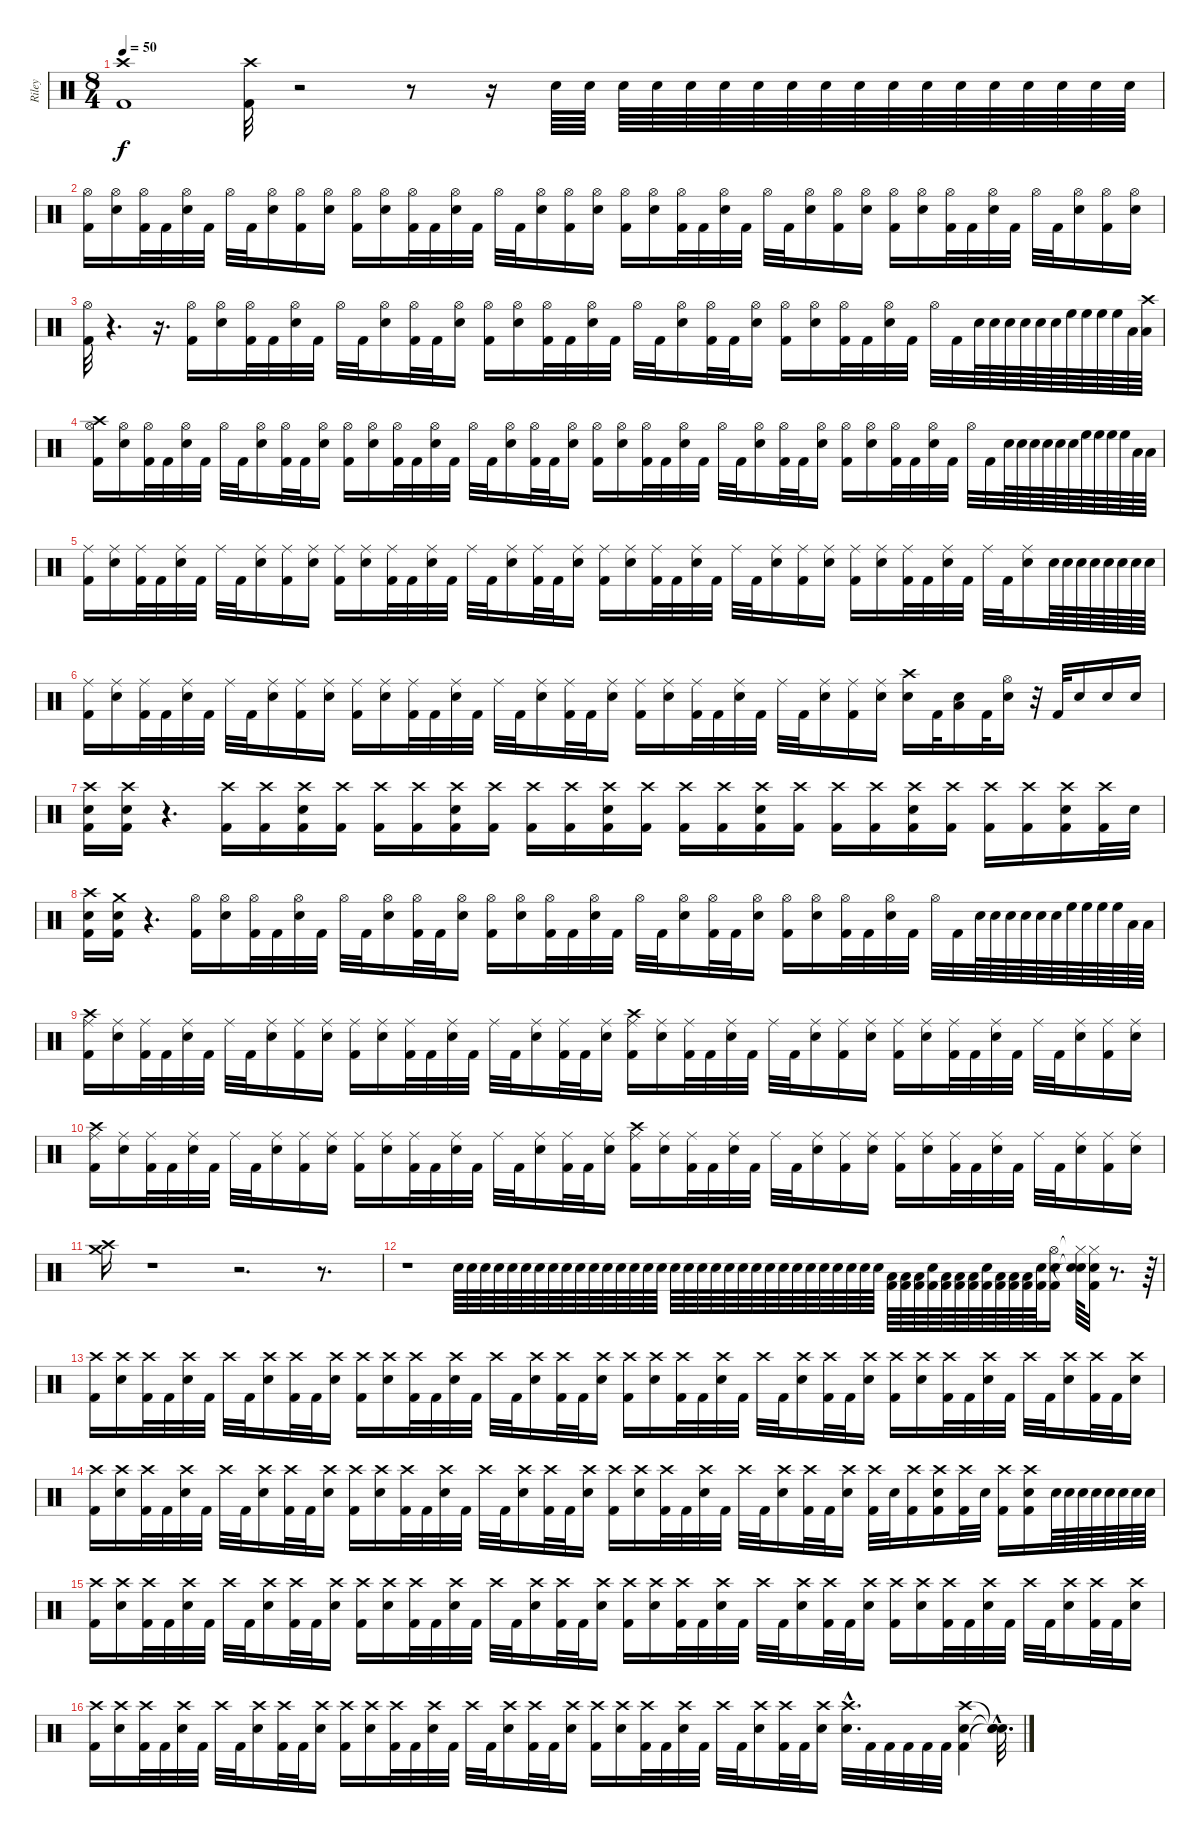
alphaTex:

\track ("Riley" "Riley") {instrument percussion}
\staff {score}
\articulation defaults
\ts (8 4)
\tempo 50
\clef neutral
\ks c
("Crash high (hit)" "Kick (hit) 2").1{dy f} ("Crash high (hit)" "Kick (hit) 2").32 r.2 r.8 r.16 "Snare (hit) 2".64 "Snare (hit) 2".64 "Snare (hit) 2".64 "Snare (hit) 2".64 "Snare (hit) 2".64 "Snare (hit) 2".64 "Snare (hit) 2".64 "Snare (hit) 2".64 "Snare (hit) 2".64 "Snare (hit) 2".64 "Snare (hit) 2".64 "Snare (hit) 2".64 "Snare (hit) 2".64 "Snare (hit) 2".64 "Snare (hit) 2".64 "Snare (hit) 2".64 "Snare (hit) 2".64 "Snare (hit) 2".64 |
("Hi-Hat (open)" "Kick (hit) 2").16 ("Hi-Hat (open)" "Snare (hit) 2").16 ("Hi-Hat (open)" "Kick (hit) 2").32 "Kick (hit) 2".32 ("Hi-Hat (open)" "Snare (hit) 2").32 "Kick (hit) 2".32 "Hi-Hat (open)".32 "Kick (hit) 2".32 ("Hi-Hat (open)" "Snare (hit) 2").16 ("Hi-Hat (open)" "Kick (hit) 2").16 ("Hi-Hat (open)" "Snare (hit) 2").16 ("Hi-Hat (open)" "Kick (hit) 2").16 ("Hi-Hat (open)" "Snare (hit) 2").16 ("Hi-Hat (open)" "Kick (hit) 2").32 "Kick (hit) 2".32 ("Hi-Hat (open)" "Snare (hit) 2").32 "Kick (hit) 2".32 "Hi-Hat (open)".32 "Kick (hit) 2".32 ("Hi-Hat (open)" "Snare (hit) 2").16 ("Hi-Hat (open)" "Kick (hit) 2").16 ("Hi-Hat (open)" "Snare (hit) 2").16 ("Hi-Hat (open)" "Kick (hit) 2").16 ("Hi-Hat (open)" "Snare (hit) 2").16 ("Hi-Hat (open)" "Kick (hit) 2").32 "Kick (hit) 2".32 ("Hi-Hat (open)" "Snare (hit) 2").32 "Kick (hit) 2".32 "Hi-Hat (open)".32 "Kick (hit) 2".32 ("Hi-Hat (open)" "Snare (hit) 2").16 ("Hi-Hat (open)" "Kick (hit) 2").16 ("Hi-Hat (open)" "Snare (hit) 2").16 ("Hi-Hat (open)" "Kick (hit) 2").16 ("Hi-Hat (open)" "Snare (hit) 2").16 ("Hi-Hat (open)" "Kick (hit) 2").32 "Kick (hit) 2".32 ("Hi-Hat (open)" "Snare (hit) 2").32 "Kick (hit) 2".32 "Hi-Hat (open)".32 "Kick (hit) 2".32 ("Hi-Hat (open)" "Snare (hit) 2").16 ("Hi-Hat (open)" "Kick (hit) 2").16 ("Hi-Hat (open)" "Snare (hit) 2").16 |
("Hi-Hat (open)" "Kick (hit) 2").32 r.4{d} r.16{d} ("Hi-Hat (open)" "Kick (hit) 2").16 ("Hi-Hat (open)" "Snare (hit) 2").16 ("Hi-Hat (open)" "Kick (hit) 2").32 "Kick (hit) 2".32 ("Hi-Hat (open)" "Snare (hit) 2").32 "Kick (hit) 2".32 "Hi-Hat (open)".32 "Kick (hit) 2".32 ("Hi-Hat (open)" "Snare (hit) 2").16 ("Hi-Hat (open)" "Kick (hit) 2").32 "Kick (hit) 2".32 ("Hi-Hat (open)" "Snare (hit) 2").16 ("Hi-Hat (open)" "Kick (hit) 2").16 ("Hi-Hat (open)" "Snare (hit) 2").16 ("Hi-Hat (open)" "Kick (hit) 2").32 "Kick (hit) 2".32 ("Hi-Hat (open)" "Snare (hit) 2").32 "Kick (hit) 2".32 "Hi-Hat (open)".32 "Kick (hit) 2".32 ("Hi-Hat (open)" "Snare (hit) 2").16 ("Hi-Hat (open)" "Kick (hit) 2").32 "Kick (hit) 2".32 ("Hi-Hat (open)" "Snare (hit) 2").16 ("Hi-Hat (open)" "Kick (hit) 2").16 ("Hi-Hat (open)" "Snare (hit) 2").16 ("Hi-Hat (open)" "Kick (hit) 2").32 "Kick (hit) 2".32 ("Hi-Hat (open)" "Snare (hit) 2").32 "Kick (hit) 2".32 "Hi-Hat (open)".32 "Kick (hit) 2".32 "Snare (hit) 2".64 "Snare (hit) 2".64 "Snare (hit) 2".64 "Snare (hit) 2".64 "Snare (hit) 2".64 "Snare (hit) 2".64 "High Floor Tom (hit)".64 "High Floor Tom (hit)".64 "High Floor Tom (hit)".64 "High Floor Tom (hit)".64 "Low Tom (hit)".64 ("Crash high (hit)" "Low Tom (hit)").64 |
("Crash high (hit)" "Hi-Hat (open)" "Kick (hit) 2").16 ("Hi-Hat (open)" "Snare (hit) 2").16 ("Hi-Hat (open)" "Kick (hit) 2").32 "Kick (hit) 2".32 ("Hi-Hat (open)" "Snare (hit) 2").32 "Kick (hit) 2".32 "Hi-Hat (open)".32 "Kick (hit) 2".32 ("Hi-Hat (open)" "Snare (hit) 2").16 ("Hi-Hat (open)" "Kick (hit) 2").32 "Kick (hit) 2".32 ("Hi-Hat (open)" "Snare (hit) 2").16 ("Hi-Hat (open)" "Kick (hit) 2").16 ("Hi-Hat (open)" "Snare (hit) 2").16 ("Hi-Hat (open)" "Kick (hit) 2").32 "Kick (hit) 2".32 ("Hi-Hat (open)" "Snare (hit) 2").32 "Kick (hit) 2".32 "Hi-Hat (open)".32 "Kick (hit) 2".32 ("Hi-Hat (open)" "Snare (hit) 2").16 ("Hi-Hat (open)" "Kick (hit) 2").32 "Kick (hit) 2".32 ("Hi-Hat (open)" "Snare (hit) 2").16 ("Hi-Hat (open)" "Kick (hit) 2").16 ("Hi-Hat (open)" "Snare (hit) 2").16 ("Hi-Hat (open)" "Kick (hit) 2").32 "Kick (hit) 2".32 ("Hi-Hat (open)" "Snare (hit) 2").32 "Kick (hit) 2".32 "Hi-Hat (open)".32 "Kick (hit) 2".32 ("Hi-Hat (open)" "Snare (hit) 2").16 ("Hi-Hat (open)" "Kick (hit) 2").32 "Kick (hit) 2".32 ("Hi-Hat (open)" "Snare (hit) 2").16 ("Hi-Hat (open)" "Kick (hit) 2").16 ("Hi-Hat (open)" "Snare (hit) 2").16 ("Hi-Hat (open)" "Kick (hit) 2").32 "Kick (hit) 2".32 ("Hi-Hat (open)" "Snare (hit) 2").32 "Kick (hit) 2".32 "Hi-Hat (open)".32 "Kick (hit) 2".32 "Snare (hit) 2".64 "Snare (hit) 2".64 "Snare (hit) 2".64 "Snare (hit) 2".64 "Snare (hit) 2".64 "Snare (hit) 2".64 "High Floor Tom (hit)".64 "High Floor Tom (hit)".64 "High Floor Tom (hit)".64 "High Floor Tom (hit)".64 "Low Tom (hit)".64 "Low Tom (hit)".64 |
("Ride (middle)" "Kick (hit) 2").16 ("Ride (middle)" "Snare (hit) 2").16 ("Ride (middle)" "Kick (hit) 2").32 "Kick (hit) 2".32 ("Ride (middle)" "Snare (hit) 2").32 "Kick (hit) 2".32 "Ride (middle)".32 "Kick (hit) 2".32 ("Ride (middle)" "Snare (hit) 2").16 ("Ride (middle)" "Kick (hit) 2").16 ("Ride (middle)" "Snare (hit) 2").16 ("Ride (middle)" "Kick (hit) 2").16 ("Ride (middle)" "Snare (hit) 2").16 ("Ride (middle)" "Kick (hit) 2").32 "Kick (hit) 2".32 ("Ride (middle)" "Snare (hit) 2").32 "Kick (hit) 2".32 "Ride (middle)".32 "Kick (hit) 2".32 ("Ride (middle)" "Snare (hit) 2").16 ("Ride (middle)" "Kick (hit) 2").32 "Kick (hit) 2".32 ("Ride (middle)" "Snare (hit) 2").16 ("Ride (middle)" "Kick (hit) 2").16 ("Ride (middle)" "Snare (hit) 2").16 ("Ride (middle)" "Kick (hit) 2").32 "Kick (hit) 2".32 ("Ride (middle)" "Snare (hit) 2").32 "Kick (hit) 2".32 "Ride (middle)".32 "Kick (hit) 2".32 ("Ride (middle)" "Snare (hit) 2").16 ("Ride (middle)" "Kick (hit) 2").16 ("Ride (middle)" "Snare (hit) 2").16 ("Ride (middle)" "Kick (hit) 2").16 ("Ride (middle)" "Snare (hit) 2").16 ("Ride (middle)" "Kick (hit) 2").32 "Kick (hit) 2".32 ("Ride (middle)" "Snare (hit) 2").32 "Kick (hit) 2".32 "Ride (middle)".32 "Kick (hit) 2".32 ("Ride (middle)" "Snare (hit) 2").16 "Snare (hit) 2".64 "Snare (hit) 2".64 "Snare (hit) 2".64 "Snare (hit) 2".64 "Snare (hit) 2".64 "Snare (hit) 2".64 "Snare (hit) 2".64 "Snare (hit) 2".64 |
("Ride (middle)" "Kick (hit) 2").16 ("Ride (middle)" "Snare (hit) 2").16 ("Ride (middle)" "Kick (hit) 2").32 "Kick (hit) 2".32 ("Ride (middle)" "Snare (hit) 2").32 "Kick (hit) 2".32 "Ride (middle)".32 "Kick (hit) 2".32 ("Ride (middle)" "Snare (hit) 2").16 ("Ride (middle)" "Kick (hit) 2").16 ("Ride (middle)" "Snare (hit) 2").16 ("Ride (middle)" "Kick (hit) 2").16 ("Ride (middle)" "Snare (hit) 2").16 ("Ride (middle)" "Kick (hit) 2").32 "Kick (hit) 2".32 ("Ride (middle)" "Snare (hit) 2").32 "Kick (hit) 2".32 "Ride (middle)".32 "Kick (hit) 2".32 ("Ride (middle)" "Snare (hit) 2").16 ("Ride (middle)" "Kick (hit) 2").32 "Kick (hit) 2".32 ("Ride (middle)" "Snare (hit) 2").16 ("Ride (middle)" "Kick (hit) 2").16 ("Ride (middle)" "Snare (hit) 2").16 ("Ride (middle)" "Kick (hit) 2").32 "Kick (hit) 2".32 ("Ride (middle)" "Snare (hit) 2").32 "Kick (hit) 2".32 "Ride (middle)".32 "Kick (hit) 2".32 ("Ride (middle)" "Snare (hit) 2").16 ("Ride (middle)" "Kick (hit) 2").16 ("Ride (middle)" "Snare (hit) 2").16 ("Crash high (hit)" "Snare (hit) 2").16 "Kick (hit) 2".32 ("Snare (hit) 2" "Low Tom (hit)").16 "Kick (hit) 2".32 ("Hi-Hat (open)" "Snare (hit) 2").16 r.32 "Kick (hit) 2".32 "Snare (hit) 2".16 "Snare (hit) 2".16 "Snare (hit) 2".16 |
("Crash high (hit)" "Snare (hit) 2" "Kick (hit) 2").16 ("Crash high (hit)" "Snare (hit) 2" "Kick (hit) 2").16 r.4{d} ("Crash high (hit)" "Kick (hit) 2").16 ("Crash high (hit)" "Kick (hit) 2").16 ("Crash high (hit)" "Snare (hit) 2" "Kick (hit) 2").16 ("Crash high (hit)" "Kick (hit) 2").16 ("Crash high (hit)" "Kick (hit) 2").16 ("Crash high (hit)" "Kick (hit) 2").16 ("Crash high (hit)" "Snare (hit) 2" "Kick (hit) 2").16 ("Crash high (hit)" "Kick (hit) 2").16 ("Crash high (hit)" "Kick (hit) 2").16 ("Crash high (hit)" "Kick (hit) 2").16 ("Crash high (hit)" "Snare (hit) 2" "Kick (hit) 2").16 ("Crash high (hit)" "Kick (hit) 2").16 ("Crash high (hit)" "Kick (hit) 2").16 ("Crash high (hit)" "Kick (hit) 2").16 ("Crash high (hit)" "Snare (hit) 2" "Kick (hit) 2").16 ("Crash high (hit)" "Kick (hit) 2").16 ("Crash high (hit)" "Kick (hit) 2").16 ("Crash high (hit)" "Kick (hit) 2").16 ("Crash high (hit)" "Snare (hit) 2" "Kick (hit) 2").16 ("Crash high (hit)" "Kick (hit) 2").16 ("Crash high (hit)" "Kick (hit) 2").16 ("Crash high (hit)" "Kick (hit) 2").16 ("Crash high (hit)" "Snare (hit) 2" "Kick (hit) 2").16 ("Crash high (hit)" "Kick (hit) 2").32 "Snare (hit) 2".32 |
("Crash high (hit)" "Snare (hit) 2" "Kick (hit) 2").16 ("Crash medium (hit)" "Snare (hit) 2" "Kick (hit) 2").16 r.4{d} ("Hi-Hat (open)" "Kick (hit) 2").16 ("Hi-Hat (open)" "Snare (hit) 2").16 ("Hi-Hat (open)" "Kick (hit) 2").32 "Kick (hit) 2".32 ("Hi-Hat (open)" "Snare (hit) 2").32 "Kick (hit) 2".32 "Hi-Hat (open)".32 "Kick (hit) 2".32 ("Hi-Hat (open)" "Snare (hit) 2").16 ("Hi-Hat (open)" "Kick (hit) 2").32 "Kick (hit) 2".32 ("Hi-Hat (open)" "Snare (hit) 2").16 ("Hi-Hat (open)" "Kick (hit) 2").16 ("Hi-Hat (open)" "Snare (hit) 2").16 ("Hi-Hat (open)" "Kick (hit) 2").32 "Kick (hit) 2".32 ("Hi-Hat (open)" "Snare (hit) 2").32 "Kick (hit) 2".32 "Hi-Hat (open)".32 "Kick (hit) 2".32 ("Hi-Hat (open)" "Snare (hit) 2").16 ("Hi-Hat (open)" "Kick (hit) 2").32 "Kick (hit) 2".32 ("Hi-Hat (open)" "Snare (hit) 2").16 ("Hi-Hat (open)" "Kick (hit) 2").16 ("Hi-Hat (open)" "Snare (hit) 2").16 ("Hi-Hat (open)" "Kick (hit) 2").32 "Kick (hit) 2".32 ("Hi-Hat (open)" "Snare (hit) 2").32 "Kick (hit) 2".32 "Hi-Hat (open)".32 "Kick (hit) 2".32 "Snare (hit) 2".64 "Snare (hit) 2".64 "Snare (hit) 2".64 "Snare (hit) 2".64 "Snare (hit) 2".64 "Snare (hit) 2".64 "High Floor Tom (hit)".64 "High Floor Tom (hit)".64 "High Floor Tom (hit)".64 "High Floor Tom (hit)".64 "Low Tom (hit)".64 "Low Tom (hit)".64 |
("Crash high (hit)" "Ride (middle)" "Kick (hit) 2").16 ("Ride (middle)" "Snare (hit) 2").16 ("Ride (middle)" "Kick (hit) 2").32 "Kick (hit) 2".32 ("Ride (middle)" "Snare (hit) 2").32 "Kick (hit) 2".32 "Ride (middle)".32 "Kick (hit) 2".32 ("Ride (middle)" "Snare (hit) 2").16 ("Ride (middle)" "Kick (hit) 2").16 ("Ride (middle)" "Snare (hit) 2").16 ("Ride (middle)" "Kick (hit) 2").16 ("Ride (middle)" "Snare (hit) 2").16 ("Ride (middle)" "Kick (hit) 2").32 "Kick (hit) 2".32 ("Ride (middle)" "Snare (hit) 2").32 "Kick (hit) 2".32 "Ride (middle)".32 "Kick (hit) 2".32 ("Ride (middle)" "Snare (hit) 2").16 ("Ride (middle)" "Kick (hit) 2").32 "Kick (hit) 2".32 ("Ride (middle)" "Snare (hit) 2").16 ("Crash high (hit)" "Ride (middle)" "Kick (hit) 2").16 ("Ride (middle)" "Snare (hit) 2").16 ("Ride (middle)" "Kick (hit) 2").32 "Kick (hit) 2".32 ("Ride (middle)" "Snare (hit) 2").32 "Kick (hit) 2".32 "Ride (middle)".32 "Kick (hit) 2".32 ("Ride (middle)" "Snare (hit) 2").16 ("Ride (middle)" "Kick (hit) 2").16 ("Ride (middle)" "Snare (hit) 2").16 ("Ride (middle)" "Kick (hit) 2").16 ("Ride (middle)" "Snare (hit) 2").16 ("Ride (middle)" "Kick (hit) 2").32 "Kick (hit) 2".32 ("Ride (middle)" "Snare (hit) 2").32 "Kick (hit) 2".32 "Ride (middle)".32 "Kick (hit) 2".32 ("Ride (middle)" "Snare (hit) 2").16 ("Ride (middle)" "Kick (hit) 2").16 ("Ride (middle)" "Snare (hit) 2").16 |
("Crash high (hit)" "Ride (middle)" "Kick (hit) 2").16 ("Ride (middle)" "Snare (hit) 2").16 ("Ride (middle)" "Kick (hit) 2").32 "Kick (hit) 2".32 ("Ride (middle)" "Snare (hit) 2").32 "Kick (hit) 2".32 "Ride (middle)".32 "Kick (hit) 2".32 ("Ride (middle)" "Snare (hit) 2").16 ("Ride (middle)" "Kick (hit) 2").16 ("Ride (middle)" "Snare (hit) 2").16 ("Ride (middle)" "Kick (hit) 2").16 ("Ride (middle)" "Snare (hit) 2").16 ("Ride (middle)" "Kick (hit) 2").32 "Kick (hit) 2".32 ("Ride (middle)" "Snare (hit) 2").32 "Kick (hit) 2".32 "Ride (middle)".32 "Kick (hit) 2".32 ("Ride (middle)" "Snare (hit) 2").16 ("Ride (middle)" "Kick (hit) 2").32 "Kick (hit) 2".32 ("Ride (middle)" "Snare (hit) 2").16 ("Crash high (hit)" "Ride (middle)" "Kick (hit) 2").16 ("Ride (middle)" "Snare (hit) 2").16 ("Ride (middle)" "Kick (hit) 2").32 "Kick (hit) 2".32 ("Ride (middle)" "Snare (hit) 2").32 "Kick (hit) 2".32 "Ride (middle)".32 "Kick (hit) 2".32 ("Ride (middle)" "Snare (hit) 2").16 ("Ride (middle)" "Kick (hit) 2").16 ("Ride (middle)" "Snare (hit) 2").16 ("Ride (middle)" "Kick (hit) 2").16 ("Ride (middle)" "Snare (hit) 2").16 ("Ride (middle)" "Kick (hit) 2").32 "Kick (hit) 2".32 ("Ride (middle)" "Snare (hit) 2").32 "Kick (hit) 2".32 "Ride (middle)".32 "Kick (hit) 2".32 ("Ride (middle)" "Snare (hit) 2").16 ("Ride (middle)" "Kick (hit) 2").16 ("Ride (middle)" "Snare (hit) 2").16 |
("Crash high (hit)" "Crash medium (hit)").16 r.1 r.2{d} r.8{d} |
r.1 "Snare (hit) 2".64 "Snare (hit) 2".64 "Snare (hit) 2".64 "Snare (hit) 2".64 "Snare (hit) 2".64 "Snare (hit) 2".64 "Snare (hit) 2".64 "Snare (hit) 2".64 "Snare (hit) 2".64 "Snare (hit) 2".64 "Snare (hit) 2".64 "Snare (hit) 2".64 "Snare (hit) 2".64 "Snare (hit) 2".64 "Snare (hit) 2".64 "Snare (hit) 2".64 "Snare (hit) 2".64 "Snare (hit) 2".64 "Snare (hit) 2".64 "Snare (hit) 2".64 "Snare (hit) 2".64 "Snare (hit) 2".64 "Snare (hit) 2".64 "Snare (hit) 2".64 "Snare (hit) 2".64 "Snare (hit) 2".64 "Snare (hit) 2".64 "Snare (hit) 2".64 "Snare (hit) 2".64 "Snare (hit) 2".64 "Snare (hit) 2".64 "Snare (hit) 2".64 ("Low Tom (hit)" "Kick (hit) 2").64 ("Low Tom (hit)" "Kick (hit) 2").64 ("Low Floor Tom (hit)" "Kick (hit) 2").64 ("Snare (hit) 2" "Kick (hit) 2").64 ("Low Tom (hit)" "Kick (hit) 2").64 ("Low Tom (hit)" "Kick (hit) 2").64 ("Low Floor Tom (hit)" "Kick (hit) 2").64 ("Snare (hit) 2" "Kick (hit) 2").64 ("Low Tom (hit)" "Kick (hit) 2").64 ("Low Tom (hit)" "Kick (hit) 2").64 ("Low Floor Tom (hit)" "Kick (hit) 2").64 ("Snare (hit) 2" "Kick (hit) 2").64 ("Hi-Hat (open)" "Snare (hit) 2" "Kick (hit) 2").16 ("Hi-Hat (closed)"{t} "Snare (hit)"{t} "Snare (hit)"{t}).64 ("Hi-Hat (closed)" "Snare (hit) 2" "Kick (hit) 2").32{volume 14} r.8{d} r.64 |
("Crash high (hit)" "Kick (hit) 2").16 ("Crash high (hit)" "Snare (hit) 2").16 ("Crash high (hit)" "Kick (hit) 2").32 "Kick (hit) 2".32 ("Crash high (hit)" "Snare (hit) 2").32 "Kick (hit) 2".32 "Crash high (hit)".32 "Kick (hit) 2".32 ("Crash high (hit)" "Snare (hit) 2").16 ("Crash high (hit)" "Kick (hit) 2").32 "Kick (hit) 2".32 ("Crash high (hit)" "Snare (hit) 2").16 ("Crash high (hit)" "Kick (hit) 2").16 ("Crash high (hit)" "Snare (hit) 2").16 ("Crash high (hit)" "Kick (hit) 2").32 "Kick (hit) 2".32 ("Crash high (hit)" "Snare (hit) 2").32 "Kick (hit) 2".32 "Crash high (hit)".32 "Kick (hit) 2".32 ("Crash high (hit)" "Snare (hit) 2").16 ("Crash high (hit)" "Kick (hit) 2").32 "Kick (hit) 2".32 ("Crash high (hit)" "Snare (hit) 2").16 ("Crash high (hit)" "Kick (hit) 2").16 ("Crash high (hit)" "Snare (hit) 2").16 ("Crash high (hit)" "Kick (hit) 2").32 "Kick (hit) 2".32 ("Crash high (hit)" "Snare (hit) 2").32 "Kick (hit) 2".32 "Crash high (hit)".32 "Kick (hit) 2".32 ("Crash high (hit)" "Snare (hit) 2").16 ("Crash high (hit)" "Kick (hit) 2").32 "Kick (hit) 2".32 ("Crash high (hit)" "Snare (hit) 2").16 ("Crash high (hit)" "Kick (hit) 2").16 ("Crash high (hit)" "Snare (hit) 2").16 ("Crash high (hit)" "Kick (hit) 2").32 "Kick (hit) 2".32 ("Crash high (hit)" "Snare (hit) 2").32 "Kick (hit) 2".32 "Crash high (hit)".32 "Kick (hit) 2".32 ("Crash high (hit)" "Snare (hit) 2").16 ("Crash high (hit)" "Kick (hit) 2").32 "Kick (hit) 2".32 ("Crash high (hit)" "Snare (hit) 2").16 |
("Crash high (hit)" "Kick (hit) 2").16 ("Crash high (hit)" "Snare (hit) 2").16 ("Crash high (hit)" "Kick (hit) 2").32 "Kick (hit) 2".32 ("Crash high (hit)" "Snare (hit) 2").32 "Kick (hit) 2".32 "Crash high (hit)".32 "Kick (hit) 2".32 ("Crash high (hit)" "Snare (hit) 2").16 ("Crash high (hit)" "Kick (hit) 2").32 "Kick (hit) 2".32 ("Crash high (hit)" "Snare (hit) 2").16 ("Crash high (hit)" "Kick (hit) 2").16 ("Crash high (hit)" "Snare (hit) 2").16 ("Crash high (hit)" "Kick (hit) 2").32 "Kick (hit) 2".32 ("Crash high (hit)" "Snare (hit) 2").32 "Kick (hit) 2".32 "Crash high (hit)".32 "Kick (hit) 2".32 ("Crash high (hit)" "Snare (hit) 2").16 ("Crash high (hit)" "Kick (hit) 2").32 "Kick (hit) 2".32 ("Crash high (hit)" "Snare (hit) 2").16 ("Crash high (hit)" "Kick (hit) 2").16 ("Crash high (hit)" "Snare (hit) 2").16 ("Crash high (hit)" "Kick (hit) 2").32 "Kick (hit) 2".32 ("Crash high (hit)" "Snare (hit) 2").32 "Kick (hit) 2".32 "Crash high (hit)".32 "Kick (hit) 2".32 ("Crash high (hit)" "Snare (hit) 2").16 ("Crash high (hit)" "Kick (hit) 2").32 "Kick (hit) 2".32 ("Crash high (hit)" "Snare (hit) 2").16 ("Crash high (hit)" "Kick (hit) 2").32 "Snare (hit) 2".32 ("Crash high (hit)" "Kick (hit) 2").16 ("Crash high (hit)" "Snare (hit) 2" "Kick (hit) 2").16 ("Crash high (hit)" "Kick (hit) 2").32 "Snare (hit) 2".32 ("Crash high (hit)" "Kick (hit) 2").16 ("Crash high (hit)" "Snare (hit) 2" "Kick (hit) 2").16 "Snare (hit) 2".64 "Snare (hit) 2".64 "Snare (hit) 2".64 "Snare (hit) 2".64 "Snare (hit) 2".64 "Snare (hit) 2".64 "Snare (hit) 2".64 "Snare (hit) 2".64 |
("Crash high (hit)" "Kick (hit) 2").16 ("Crash high (hit)" "Snare (hit) 2").16 ("Crash high (hit)" "Kick (hit) 2").32 "Kick (hit) 2".32 ("Crash high (hit)" "Snare (hit) 2").32 "Kick (hit) 2".32 "Crash high (hit)".32 "Kick (hit) 2".32 ("Crash high (hit)" "Snare (hit) 2").16 ("Crash high (hit)" "Kick (hit) 2").32 "Kick (hit) 2".32 ("Crash high (hit)" "Snare (hit) 2").16 ("Crash high (hit)" "Kick (hit) 2").16 ("Crash high (hit)" "Snare (hit) 2").16 ("Crash high (hit)" "Kick (hit) 2").32 "Kick (hit) 2".32 ("Crash high (hit)" "Snare (hit) 2").32 "Kick (hit) 2".32 "Crash high (hit)".32 "Kick (hit) 2".32 ("Crash high (hit)" "Snare (hit) 2").16 ("Crash high (hit)" "Kick (hit) 2").32 "Kick (hit) 2".32 ("Crash high (hit)" "Snare (hit) 2").16 ("Crash high (hit)" "Kick (hit) 2").16 ("Crash high (hit)" "Snare (hit) 2").16 ("Crash high (hit)" "Kick (hit) 2").32 "Kick (hit) 2".32 ("Crash high (hit)" "Snare (hit) 2").32 "Kick (hit) 2".32 "Crash high (hit)".32 "Kick (hit) 2".32 ("Crash high (hit)" "Snare (hit) 2").16 ("Crash high (hit)" "Kick (hit) 2").32 "Kick (hit) 2".32 ("Crash high (hit)" "Snare (hit) 2").16 ("Crash high (hit)" "Kick (hit) 2").16 ("Crash high (hit)" "Snare (hit) 2").16 ("Crash high (hit)" "Kick (hit) 2").32 "Kick (hit) 2".32 ("Crash high (hit)" "Snare (hit) 2").32 "Kick (hit) 2".32 "Crash high (hit)".32 "Kick (hit) 2".32 ("Crash high (hit)" "Snare (hit) 2").16 ("Crash high (hit)" "Kick (hit) 2").32 "Kick (hit) 2".32 ("Crash high (hit)" "Snare (hit) 2").16 |
("Crash high (hit)" "Kick (hit) 2").16 ("Crash high (hit)" "Snare (hit) 2").16 ("Crash high (hit)" "Kick (hit) 2").32 "Kick (hit) 2".32 ("Crash high (hit)" "Snare (hit) 2").32 "Kick (hit) 2".32 "Crash high (hit)".32 "Kick (hit) 2".32 ("Crash high (hit)" "Snare (hit) 2").16 ("Crash high (hit)" "Kick (hit) 2").32 "Kick (hit) 2".32 ("Crash high (hit)" "Snare (hit) 2").16 ("Crash high (hit)" "Kick (hit) 2").16 ("Crash high (hit)" "Snare (hit) 2").16 ("Crash high (hit)" "Kick (hit) 2").32 "Kick (hit) 2".32 ("Crash high (hit)" "Snare (hit) 2").32 "Kick (hit) 2".32 "Crash high (hit)".32 "Kick (hit) 2".32 ("Crash high (hit)" "Snare (hit) 2").16 ("Crash high (hit)" "Kick (hit) 2").32 "Kick (hit) 2".32 ("Crash high (hit)" "Snare (hit) 2").16 ("Crash high (hit)" "Kick (hit) 2").16 ("Crash high (hit)" "Snare (hit) 2").16 ("Crash high (hit)" "Kick (hit) 2").32 "Kick (hit) 2".32 ("Crash high (hit)" "Snare (hit) 2").32 "Kick (hit) 2".32 "Crash high (hit)".32 "Kick (hit) 2".32 ("Crash high (hit)" "Snare (hit) 2").16 ("Crash high (hit)" "Kick (hit) 2").32 "Kick (hit) 2".32 ("Crash high (hit)" "Snare (hit) 2").16 ("Crash high (hit)"{hac} "Snare (hit) 2"{hac}).32{d} "Kick (hit) 2".32 "Kick (hit) 2".32 "Kick (hit) 2".32 "Kick (hit) 2".32 "Kick (hit) 2".32 ("Crash high (hit)" "Snare (hit) 2" "Kick (hit) 2").4 ("Snare (hit)"{hac t} "Snare (hit)"{hac t} "Snare (hit)"{hac t}).32{d}
